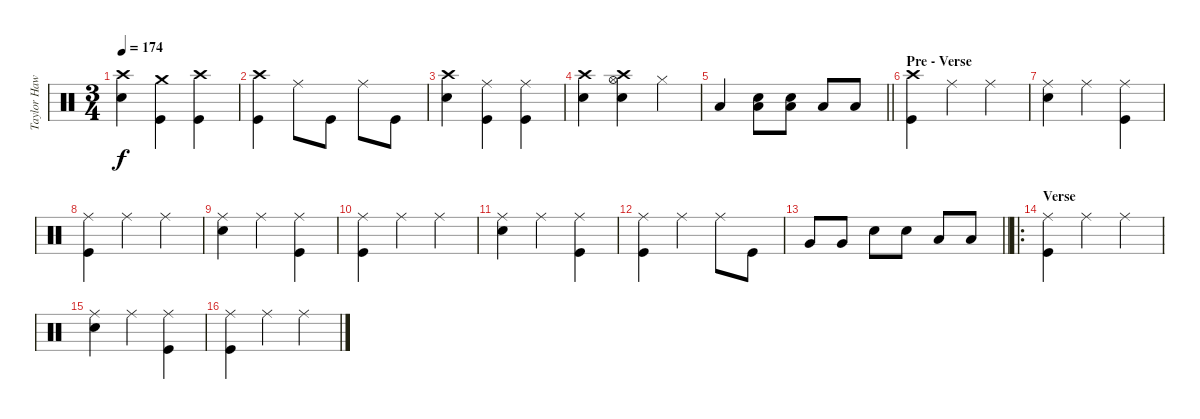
\track ("Taylor Hawkins - Drums" "Taylor Haw") {instrument percussion}
\staff {score}
\articulation defaults
\ts (3 4)
\tempo 174
\clef neutral
\ks c
("Crash high (hit)" "Snare (hit) 2").4{dy f} ("Crash medium (hit)" "Kick (hit)").4 ("Crash high (hit)" "Kick (hit)").4 |
("Crash high (hit)" "Kick (hit)").4 "Ride (middle)".8 "Kick (hit)".8 "Ride (middle)".8 "Kick (hit)".8 |
("Crash high (hit)" "Snare (hit) 2").4 ("Ride (middle)" "Kick (hit)").4 ("Ride (middle)" "Kick (hit)").4 |
("Snare (hit) 2" "Crash high (hit)").4 ("Hi-Hat (open)" "Crash high (hit)" "Snare (hit) 2").4 "Hi-Hat (closed)".4 |
\barLineRight lightlight "Low Tom (hit)".4
("Snare (hit) 2" "Low Tom (hit)").8 ("Snare (hit) 2" "Low Tom (hit)").8 "Low Floor Tom (hit)".8 "Low Floor Tom (hit)".8 |
\section ("" "Pre - Verse")
("Crash high (hit)" "Kick (hit)").4 "Ride (middle)".4 "Ride (middle)".4 |
("Ride (middle)" "Snare (hit) 2").4 "Ride (middle)".4 ("Ride (middle)" "Kick (hit)").4 |
("Ride (middle)" "Kick (hit)").4 "Ride (middle)".4 "Ride (middle)".4 |
("Ride (middle)" "Snare (hit) 2").4 "Ride (middle)".4 ("Ride (middle)" "Kick (hit)").4 |
("Ride (middle)" "Kick (hit)").4 "Ride (middle)".4 "Ride (middle)".4 |
("Ride (middle)" "Snare (hit) 2").4 "Ride (middle)".4 ("Ride (middle)" "Kick (hit)").4 |
("Ride (middle)" "Kick (hit)").4 "Ride (middle)".4 "Ride (middle)".8 "Kick (hit)".8 |
\barLineRight lightlight "Very Low Tom (hit)".8 "Very Low Tom (hit)".8 "Snare (hit) 2".8 "Snare (hit) 2".8 "Low Floor Tom (hit)".8 "Low Floor Tom (hit)".8
|
\ro
\section ("" "Verse")
("Ride (middle)" "Kick (hit)").4 "Ride (middle)".4 "Ride (middle)".4 |
("Ride (middle)" "Snare (hit) 2").4 "Ride (middle)".4 ("Ride (middle)" "Kick (hit)").4 |
("Ride (middle)" "Kick (hit)").4 "Ride (middle)".4 "Ride (middle)".4
